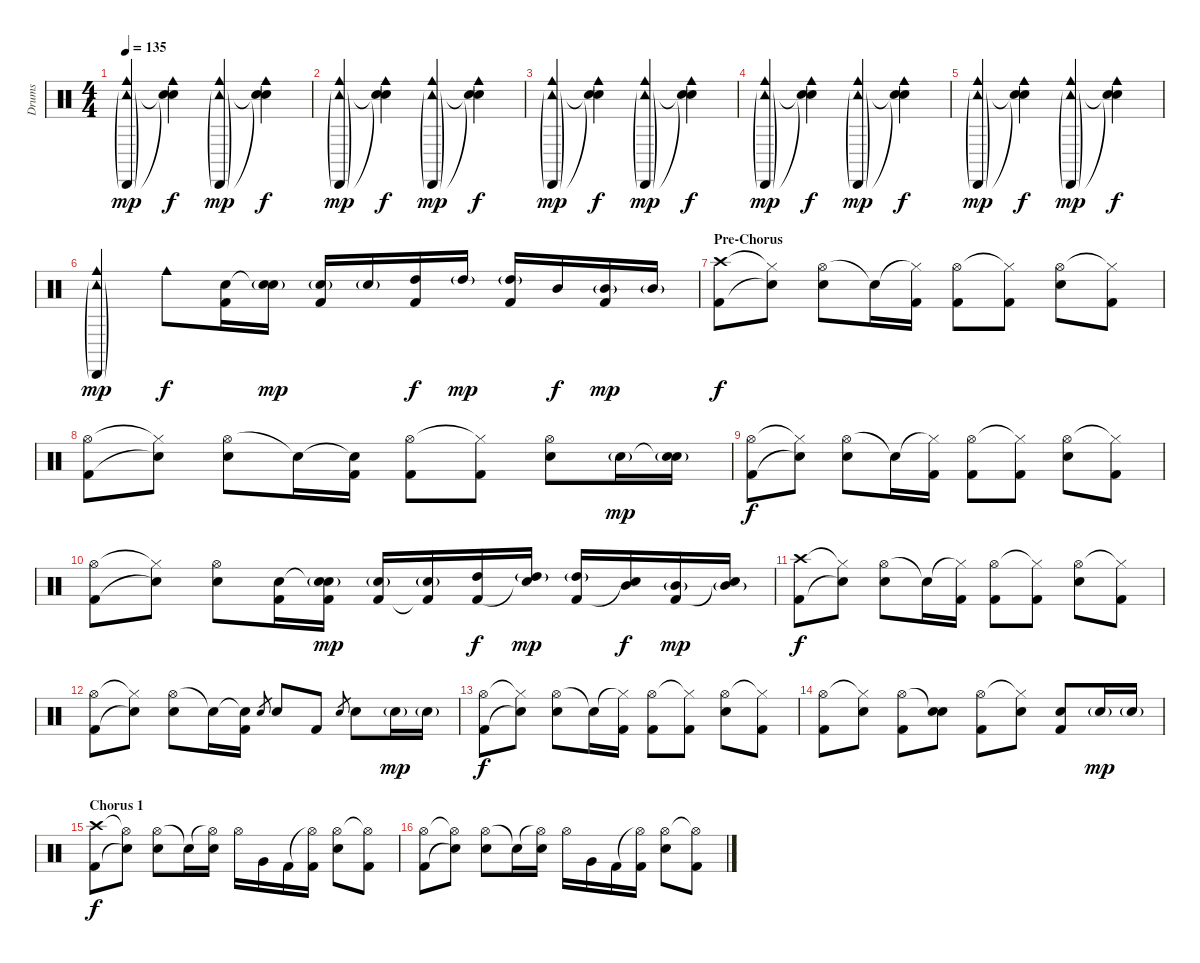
\track ("Drums" "Drums") {instrument percussion}
\staff {score}
\articulation defaults
\ts (4 4)
\tempo 135
\clef neutral
\ks c
("Cowbell medium (hit)" "Tambourine (hit)"{g} "Cabasa (hit)"{g}).4{dy mp} ("Cowbell medium (hit)" "Snare (hit)"{t} "Snare (hit)"{t}).4{dy f} ("Cowbell medium (hit)" "Tambourine (hit)"{g} "Cabasa (hit)"{g}).4{dy mp} ("Cowbell medium (hit)" "Snare (hit)"{t} "Snare (hit)"{t}).4{dy f} |
("Cowbell medium (hit)" "Tambourine (hit)"{g} "Cabasa (hit)"{g}).4{dy mp} ("Cowbell medium (hit)" "Snare (hit)"{t} "Snare (hit)"{t}).4{dy f} ("Cowbell medium (hit)" "Tambourine (hit)"{g} "Cabasa (hit)"{g}).4{dy mp} ("Cowbell medium (hit)" "Snare (hit)"{t} "Snare (hit)"{t}).4{dy f} |
("Cowbell medium (hit)" "Tambourine (hit)"{g} "Cabasa (hit)"{g}).4{dy mp} ("Cowbell medium (hit)" "Snare (hit)"{t} "Snare (hit)"{t}).4{dy f} ("Cowbell medium (hit)" "Tambourine (hit)"{g} "Cabasa (hit)"{g}).4{dy mp} ("Cowbell medium (hit)" "Snare (hit)"{t} "Snare (hit)"{t}).4{dy f} |
("Cowbell medium (hit)" "Tambourine (hit)"{g} "Cabasa (hit)"{g}).4{dy mp} ("Cowbell medium (hit)" "Snare (hit)"{t} "Snare (hit)"{t}).4{dy f} ("Cowbell medium (hit)" "Tambourine (hit)"{g} "Cabasa (hit)"{g}).4{dy mp} ("Cowbell medium (hit)" "Snare (hit)"{t} "Snare (hit)"{t}).4{dy f} |
("Cowbell medium (hit)" "Tambourine (hit)"{g} "Cabasa (hit)"{g}).4{dy mp} ("Cowbell medium (hit)" "Snare (hit)"{t} "Snare (hit)"{t}).4{dy f} ("Cowbell medium (hit)" "Tambourine (hit)"{g} "Cabasa (hit)"{g}).4{dy mp} ("Cowbell medium (hit)" "Snare (hit)"{t} "Snare (hit)"{t}).4{dy f} |
("Cowbell medium (hit)" "Tambourine (hit)"{g} "Cabasa (hit)"{g}).4{dy mp} "Cowbell medium (hit)".8{dy f} ("Electric Snare (hit)" "Kick (hit) 2").16 ("Snare (hit)"{t} "Electric Snare (hit)"{g}).16{dy mp} ("Electric Snare (hit)"{g} "Kick (hit) 2").16 "Electric Snare (hit)"{g}.16 ("High Tom (hit)" "Kick (hit) 2").16{dy f} "High Tom (hit)"{g}.16{dy mp} ("High Tom (hit)"{g} "Kick (hit) 2").16 "Mid Tom (hit)".16{dy f} ("Mid Tom (hit)"{g} "Kick (hit) 2").16{dy mp} "Mid Tom (hit)"{g}.16 |
\section ("" "Pre-Chorus")
("Crash high (hit)" "Kick (hit) 2").8{dy f} ("Hi-Hat (closed)"{t} "Snare (hit)"{t}).8 ("Hi-Hat (open)" "Electric Snare (hit)").8 "Snare (hit)"{t}.16 ("Hi-Hat (closed)"{t} "Kick (hit) 2").16 ("Hi-Hat (open)" "Kick (hit) 2").8 ("Hi-Hat (closed)"{t} "Kick (hit) 2").8 ("Hi-Hat (open)" "Electric Snare (hit)").8 ("Hi-Hat (closed)"{t} "Kick (hit) 2").8 |
("Hi-Hat (open)" "Kick (hit) 2").8 ("Hi-Hat (closed)"{t} "Snare (hit)"{t}).8 ("Hi-Hat (open)" "Electric Snare (hit)").8 "Snare (hit)"{t}.16 ("Snare (hit)"{t} "Kick (hit) 2").16 ("Hi-Hat (open)" "Kick (hit) 2").8 ("Hi-Hat (closed)"{t} "Kick (hit) 2").8 ("Hi-Hat (open)" "Electric Snare (hit)").8 "Electric Snare (hit)"{g}.16{dy mp} ("Snare (hit)"{t} "Electric Snare (hit)"{g}).16 |
("Hi-Hat (open)" "Kick (hit) 2").8{dy f} ("Hi-Hat (closed)"{t} "Snare (hit)"{t}).8 ("Hi-Hat (open)" "Electric Snare (hit)").8 "Snare (hit)"{t}.16 ("Hi-Hat (closed)"{t} "Kick (hit) 2").16 ("Hi-Hat (open)" "Kick (hit) 2").8 ("Hi-Hat (closed)"{t} "Kick (hit) 2").8 ("Hi-Hat (open)" "Electric Snare (hit)").8 ("Hi-Hat (closed)"{t} "Kick (hit) 2").8 |
("Hi-Hat (open)" "Kick (hit) 2").8 ("Hi-Hat (closed)"{t} "Snare (hit)"{t}).8 ("Hi-Hat (open)" "Electric Snare (hit)").8 ("Electric Snare (hit)" "Kick (hit) 2").16 ("Snare (hit)"{t} "Electric Snare (hit)"{g} "Kick (hit) 2").16{dy mp} ("Electric Snare (hit)"{g} "Kick (hit) 2").16 ("Electric Snare (hit)"{g} "Kick (hit) 2"{t}).16 ("High Tom (hit)" "Kick (hit) 2").16{dy f} ("High Tom (hit)"{g} "Snare (hit)"{t}).16{dy mp} ("High Tom (hit)"{g} "Kick (hit) 2").16 ("Mid Tom (hit)" "Snare (hit)"{t}).16{dy f} ("Mid Tom (hit)"{g} "Kick (hit) 2").16{dy mp} ("Mid Tom (hit)"{g} "Snare (hit)"{t}).16 |
("Crash high (hit)" "Kick (hit) 2").8{dy f} ("Hi-Hat (closed)"{t} "Snare (hit)"{t}).8 ("Hi-Hat (open)" "Electric Snare (hit)").8 "Snare (hit)"{t}.16 ("Hi-Hat (closed)"{t} "Kick (hit) 2").16 ("Hi-Hat (open)" "Kick (hit) 2").8 ("Hi-Hat (closed)"{t} "Kick (hit) 2").8 ("Hi-Hat (open)" "Electric Snare (hit)").8 ("Hi-Hat (closed)"{t} "Kick (hit) 2").8 |
("Hi-Hat (open)" "Kick (hit) 2").8 ("Hi-Hat (closed)"{t} "Snare (hit)"{t}).8 ("Hi-Hat (open)" "Electric Snare (hit)").8 "Snare (hit)"{t}.16 ("Snare (hit)"{t} "Kick (hit) 2").16 "Electric Snare (hit)".8{gr} "Electric Snare (hit)".8 "Kick (hit) 2".8 "Electric Snare (hit)".8{gr} "Electric Snare (hit)".8 "Electric Snare (hit)"{g}.16{dy mp} "Electric Snare (hit)"{g}.16 |
("Hi-Hat (open)" "Kick (hit) 2").8{dy f} ("Hi-Hat (closed)"{t} "Snare (hit)"{t}).8 ("Hi-Hat (open)" "Electric Snare (hit)").8 "Snare (hit)"{t}.16 ("Hi-Hat (closed)"{t} "Kick (hit) 2").16 ("Hi-Hat (open)" "Kick (hit) 2").8 ("Hi-Hat (closed)"{t} "Kick (hit) 2").8 ("Hi-Hat (open)" "Electric Snare (hit)").8 ("Hi-Hat (closed)"{t} "Kick (hit) 2").8 |
("Hi-Hat (open)" "Kick (hit) 2").8 ("Hi-Hat (closed)"{t} "Electric Snare (hit)").8 ("Hi-Hat (open)" "Kick (hit) 2").8 ("Snare (hit)"{t} "Electric Snare (hit)").8 ("Hi-Hat (open)" "Kick (hit) 2").8 ("Hi-Hat (closed)"{t} "Electric Snare (hit)").8 ("Electric Snare (hit)" "Kick (hit) 2").8 "Electric Snare (hit)"{g}.16{dy mp} "Electric Snare (hit)"{g}.16 |
\section ("" "Chorus 1")
("Crash high (hit)" "Kick (hit) 2").8{dy f} ("Hi-Hat (open)"{t} "Snare (hit)"{t}).8 ("Hi-Hat (open)" "Electric Snare (hit)").8 "Snare (hit)"{t}.16 ("Hi-Hat (open)"{t} "Electric Snare (hit)").16 "Hi-Hat (open)".16 "Very Low Tom (hit)".16 "Kick (hit) 2".16 ("Hi-Hat (open)"{t} "Kick (hit) 2").16 ("Hi-Hat (open)" "Electric Snare (hit)").8 ("Hi-Hat (open)"{t} "Kick (hit) 2").8 |
("Hi-Hat (open)" "Kick (hit) 2").8 ("Hi-Hat (open)"{t} "Snare (hit)"{t}).8 ("Hi-Hat (open)" "Electric Snare (hit)").8 "Snare (hit)"{t}.16 ("Hi-Hat (open)"{t} "Electric Snare (hit)").16 "Hi-Hat (open)".16 "Very Low Tom (hit)".16 "Kick (hit) 2".16 ("Hi-Hat (open)"{t} "Kick (hit) 2").16 ("Hi-Hat (open)" "Electric Snare (hit)").8 ("Hi-Hat (open)"{t} "Kick (hit) 2").8
